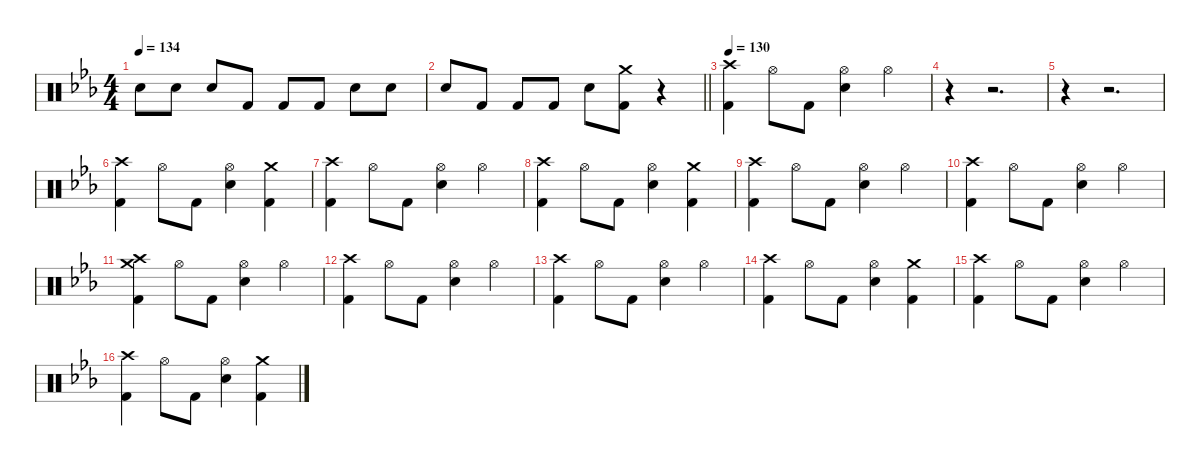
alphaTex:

\defaultSystemsLayout 4
\hideDynamics
\bracketExtendMode nobrackets
\singleTrackTrackNamePolicy hidden
\multiTrackTrackNamePolicy hidden
\firstSystemTrackNameMode fullname
\firstSystemTrackNameOrientation horizontal
\otherSystemsTrackNameOrientation horizontal
\track ("Drums" "drm.") {instrument percussion}
\staff {score}
\articulation defaults
\ts (4 4)
\tempo 134
\clef neutral
\ks cminor "Snare (hit) 2"{acc forcenatural}.8{dy f} "Snare (hit) 2"{acc forcenatural}.8 "Snare (hit) 2"{acc forcenatural}.8 "Kick (hit) 2"{acc forcenatural}.8 "Kick (hit) 2"{acc forcenatural}.8 "Kick (hit) 2"{acc forcenatural}.8 "Snare (hit) 2"{acc forcenatural}.8 "Snare (hit) 2"{acc forcenatural}.8
|
\barLineRight lightlight "Snare (hit) 2"{acc forcenatural}.8 "Kick (hit) 2"{acc forcenatural}.8 "Kick (hit) 2"{acc forcenatural}.8 "Kick (hit) 2"{acc forcenatural}.8 "Snare (hit) 2"{acc forcenatural}.8
("Crash medium (hit)"{acc forcenatural} "Kick (hit) 2"{acc forcenatural}).8 r.4 |
\tempo 130
("Crash high (hit)"{acc forcenatural} "Kick (hit) 2"{acc forcenatural}).4{dy mp} "Hi-Hat (open)"{acc forcenatural}.8 "Kick (hit) 2"{acc forcenatural}.8{dy f} ("Hi-Hat (open)"{acc forcenatural} "Snare (hit) 2"{acc forcenatural}).4{dy mp} "Hi-Hat (open)"{acc forcenatural}.4 |
r.4 r.2{d} |
r.4 r.2{d} |
("Crash high (hit)"{acc forcenatural} "Kick (hit) 2"{acc forcenatural}).4 "Hi-Hat (open)"{acc forcenatural}.8 "Kick (hit) 2"{acc forcenatural}.8{dy f} ("Hi-Hat (open)"{acc forcenatural} "Snare (hit) 2"{acc forcenatural}).4{dy mp} ("Crash medium (hit)"{acc forcenatural} "Kick (hit) 2"{acc forcenatural}).4 |
("Crash high (hit)"{acc forcenatural} "Kick (hit) 2"{acc forcenatural}).4 "Hi-Hat (open)"{acc forcenatural}.8 "Kick (hit) 2"{acc forcenatural}.8{dy f} ("Hi-Hat (open)"{acc forcenatural} "Snare (hit) 2"{acc forcenatural}).4{dy mp} "Hi-Hat (open)"{acc forcenatural}.4 |
("Crash high (hit)"{acc forcenatural} "Kick (hit) 2"{acc forcenatural}).4 "Hi-Hat (open)"{acc forcenatural}.8 "Kick (hit) 2"{acc forcenatural}.8{dy f} ("Hi-Hat (open)"{acc forcenatural} "Snare (hit) 2"{acc forcenatural}).4{dy mp} ("Crash medium (hit)"{acc forcenatural} "Kick (hit) 2"{acc forcenatural}).4 |
("Crash high (hit)"{acc forcenatural} "Kick (hit) 2"{acc forcenatural}).4 "Hi-Hat (open)"{acc forcenatural}.8 "Kick (hit) 2"{acc forcenatural}.8{dy f} ("Hi-Hat (open)"{acc forcenatural} "Snare (hit) 2"{acc forcenatural}).4{dy mp} "Hi-Hat (open)"{acc forcenatural}.4 |
("Crash high (hit)"{acc forcenatural} "Kick (hit) 2"{acc forcenatural}).4 "Hi-Hat (open)"{acc forcenatural}.8 "Kick (hit) 2"{acc forcenatural}.8{dy f} ("Hi-Hat (open)"{acc forcenatural} "Snare (hit) 2"{acc forcenatural}).4{dy mp} "Hi-Hat (open)"{acc forcenatural}.4 |
("Crash medium (hit)"{acc forcenatural} "Crash high (hit)"{acc forcenatural} "Kick (hit) 2"{acc forcenatural}).4{dy f} "Hi-Hat (open)"{acc forcenatural}.8{dy mp} "Kick (hit) 2"{acc forcenatural}.8{dy f} ("Hi-Hat (open)"{acc forcenatural} "Snare (hit) 2"{acc forcenatural}).4{dy mp} "Hi-Hat (open)"{acc forcenatural}.4 |
("Crash high (hit)"{acc forcenatural} "Kick (hit) 2"{acc forcenatural}).4 "Hi-Hat (open)"{acc forcenatural}.8 "Kick (hit) 2"{acc forcenatural}.8{dy f} ("Hi-Hat (open)"{acc forcenatural} "Snare (hit) 2"{acc forcenatural}).4{dy mp} "Hi-Hat (open)"{acc forcenatural}.4 |
("Crash high (hit)"{acc forcenatural} "Kick (hit) 2"{acc forcenatural}).4 "Hi-Hat (open)"{acc forcenatural}.8 "Kick (hit) 2"{acc forcenatural}.8{dy f} ("Hi-Hat (open)"{acc forcenatural} "Snare (hit) 2"{acc forcenatural}).4{dy mp} "Hi-Hat (open)"{acc forcenatural}.4 |
("Crash high (hit)"{acc forcenatural} "Kick (hit) 2"{acc forcenatural}).4 "Hi-Hat (open)"{acc forcenatural}.8 "Kick (hit) 2"{acc forcenatural}.8{dy f} ("Hi-Hat (open)"{acc forcenatural} "Snare (hit) 2"{acc forcenatural}).4{dy mp} ("Crash medium (hit)"{acc forcenatural} "Kick (hit) 2"{acc forcenatural}).4 |
("Crash high (hit)"{acc forcenatural} "Kick (hit) 2"{acc forcenatural}).4 "Hi-Hat (open)"{acc forcenatural}.8 "Kick (hit) 2"{acc forcenatural}.8{dy f} ("Hi-Hat (open)"{acc forcenatural} "Snare (hit) 2"{acc forcenatural}).4{dy mp} "Hi-Hat (open)"{acc forcenatural}.4 |
("Crash high (hit)"{acc forcenatural} "Kick (hit) 2"{acc forcenatural}).4 "Hi-Hat (open)"{acc forcenatural}.8 "Kick (hit) 2"{acc forcenatural}.8{dy f} ("Hi-Hat (open)"{acc forcenatural} "Snare (hit) 2"{acc forcenatural}).4{dy mp} ("Crash medium (hit)"{acc forcenatural} "Kick (hit) 2"{acc forcenatural}).4
